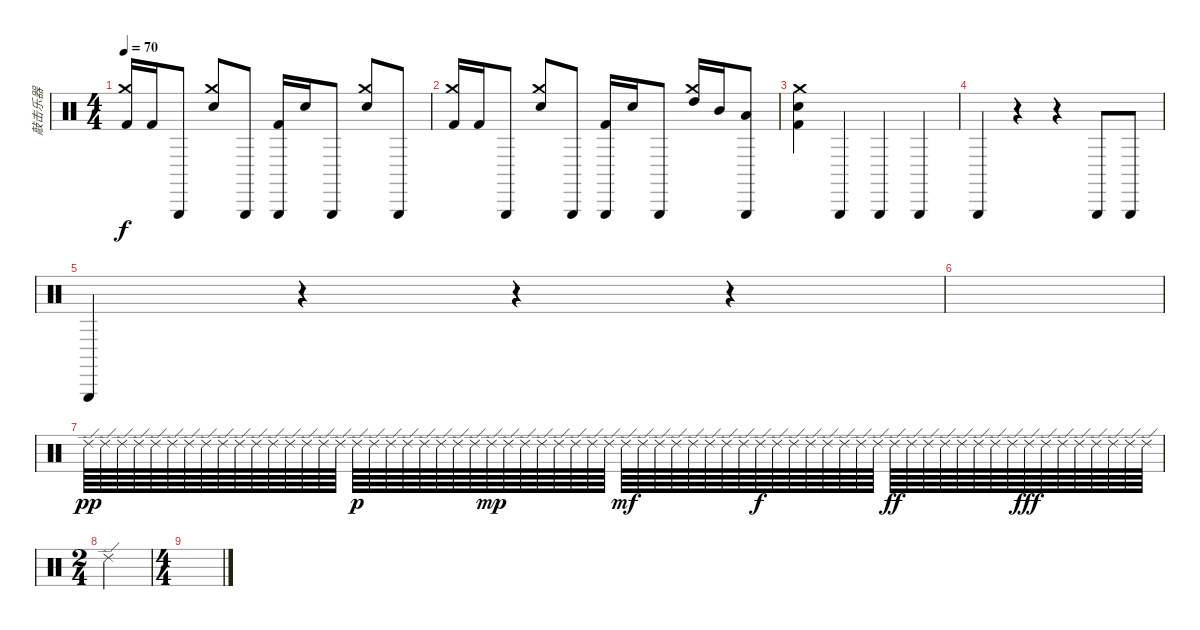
\track ("敲击乐器" "敲击乐器") {instrument percussion}
\staff {score}
\articulation defaults
\ts (4 4)
\tempo 70
\clef neutral
\ks c
("Crash medium (hit)" "Kick (hit) 2").16{dy f} "Kick (hit) 2".16 "Triangle (hit)".8 ("Crash medium (hit)" "Electric Snare (hit)").8 "Triangle (hit)".8 ("Triangle (hit)" "Kick (hit) 2").16 "Electric Snare (hit)".16 "Triangle (hit)".8 ("Crash medium (hit)" "Electric Snare (hit)").8 "Triangle (hit)".8 |
("Crash medium (hit)" "Kick (hit) 2").16 "Kick (hit) 2".16 "Triangle (hit)".8 ("Crash medium (hit)" "Electric Snare (hit)").8 "Triangle (hit)".8 ("Triangle (hit)" "Kick (hit) 2").16 "Electric Snare (hit)".16 "Triangle (hit)".8 ("Crash medium (hit)" "High Tom (hit)").16 "Mid Tom (hit)".16 ("Triangle (hit)" "Low Tom (hit)").8 |
("Crash medium (hit)" "Electric Snare (hit)" "Kick (hit) 2").4 "Triangle (hit)".4 "Triangle (hit)".4 "Triangle (hit)".4 |
"Triangle (hit)".4 r.4 r.4 "Triangle (hit)".8 "Triangle (hit)".8 |
"Triangle (hit)".4 r.4 r.4 r.4 |
|
"Ride (edge) 2".64{dy pp} "Ride (edge) 2".64 "Ride (edge) 2".64 "Ride (edge) 2".64 "Ride (edge) 2".64 "Ride (edge) 2".64 "Ride (edge) 2".64 "Ride (edge) 2".64 "Ride (edge) 2".64 "Ride (edge) 2".64 "Ride (edge) 2".64 "Ride (edge) 2".64 "Ride (edge) 2".64 "Ride (edge) 2".64 "Ride (edge) 2".64 "Ride (edge) 2".64 "Ride (edge) 2".64{dy p} "Ride (edge) 2".64 "Ride (edge) 2".64 "Ride (edge) 2".64 "Ride (edge) 2".64 "Ride (edge) 2".64 "Ride (edge) 2".64 "Ride (edge) 2".64 "Ride (edge) 2".64{dy mp} "Ride (edge) 2".64 "Ride (edge) 2".64 "Ride (edge) 2".64 "Ride (edge) 2".64 "Ride (edge) 2".64 "Ride (edge) 2".64 "Ride (edge) 2".64 "Ride (edge) 2".64{dy mf} "Ride (edge) 2".64 "Ride (edge) 2".64 "Ride (edge) 2".64 "Ride (edge) 2".64 "Ride (edge) 2".64 "Ride (edge) 2".64 "Ride (edge) 2".64 "Ride (edge) 2".64{dy f} "Ride (edge) 2".64 "Ride (edge) 2".64 "Ride (edge) 2".64 "Ride (edge) 2".64 "Ride (edge) 2".64 "Ride (edge) 2".64 "Ride (edge) 2".64 "Ride (edge) 2".64{dy ff} "Ride (edge) 2".64 "Ride (edge) 2".64 "Ride (edge) 2".64 "Ride (edge) 2".64 "Ride (edge) 2".64 "Ride (edge) 2".64 "Ride (edge) 2".64 "Ride (edge) 2".64{dy fff} "Ride (edge) 2".64 "Ride (edge) 2".64 "Ride (edge) 2".64 "Ride (edge) 2".64 "Ride (edge) 2".64 "Ride (edge) 2".64 "Ride (edge) 2".64 |
\ts (2 4)
"Ride (edge) 2".2 |
\ts (4 4)
